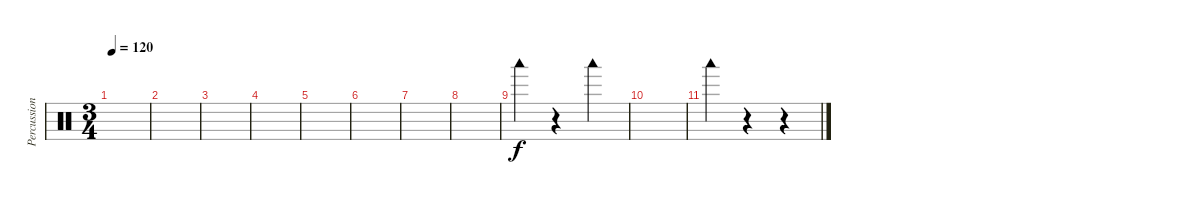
\track ("Percussion" "Percussion") {instrument percussion}
\staff {score}
\articulation defaults
\ts (3 4)
\tempo 120
\clef neutral
\ks c
|
|
|
|
|
|
|
|
"Woodblock low (hit)".4 r.4 "Woodblock low (hit)".4 |
|
"Woodblock low (hit)".4 r.4 r.4
